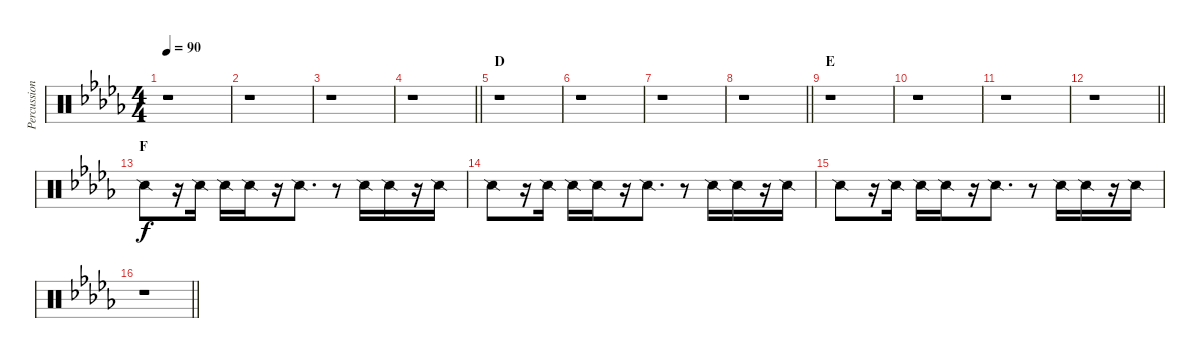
\track ("Percussion" "Percussion") {instrument percussion}
\staff {score}
\articulation defaults
\ts (4 4)
\tempo 90
\clef neutral
\ks db
r.1{dy f} |
r.1 |
r.1 |
\barLineRight lightlight
r.1 |
\section ("" "D")
r.1 |
r.1 |
r.1 |
\barLineRight lightlight
r.1 |
\section ("" "E")
r.1 |
r.1 |
r.1 |
\barLineRight lightlight
r.1 |
\section ("" "F")
"Snare (side stick) 2".8 r.16 "Snare (side stick) 2".16 "Snare (side stick) 2".16 "Snare (side stick) 2".16 r.16 "Snare (side stick) 2".8{d} r.8 "Snare (side stick) 2".16 "Snare (side stick) 2".16 r.16 "Snare (side stick) 2".16 |
"Snare (side stick) 2".8 r.16 "Snare (side stick) 2".16 "Snare (side stick) 2".16 "Snare (side stick) 2".16 r.16 "Snare (side stick) 2".8{d} r.8 "Snare (side stick) 2".16 "Snare (side stick) 2".16 r.16 "Snare (side stick) 2".16 |
"Snare (side stick) 2".8 r.16 "Snare (side stick) 2".16 "Snare (side stick) 2".16 "Snare (side stick) 2".16 r.16 "Snare (side stick) 2".8{d} r.8 "Snare (side stick) 2".16 "Snare (side stick) 2".16 r.16 "Snare (side stick) 2".16 |
\barLineRight lightlight
r.1
